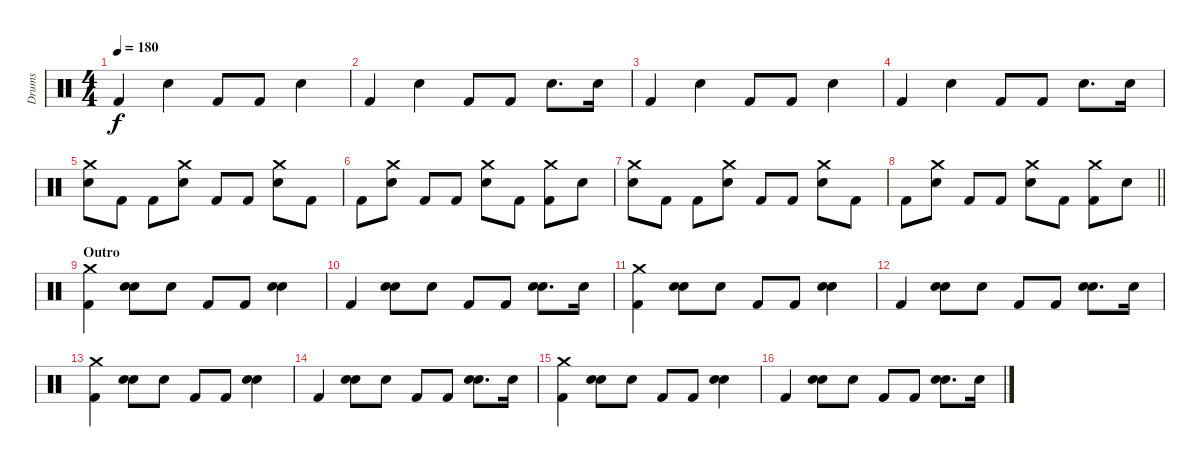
\track ("Drums" "Drums") {instrument percussion}
\staff {score}
\articulation defaults
\ts (4 4)
\tempo 180
\clef neutral
\ks c "Kick (hit) 2".4{dy f} "Snare (hit) 2".4 "Kick (hit) 2".8 "Kick (hit) 2".8 "Snare (hit) 2".4
|
"Kick (hit) 2".4 "Snare (hit) 2".4 "Kick (hit) 2".8 "Kick (hit) 2".8 "Snare (hit) 2".8{d} "Snare (hit) 2".16 |
"Kick (hit) 2".4 "Snare (hit) 2".4 "Kick (hit) 2".8 "Kick (hit) 2".8 "Snare (hit) 2".4 |
"Kick (hit) 2".4 "Snare (hit) 2".4 "Kick (hit) 2".8 "Kick (hit) 2".8 "Snare (hit) 2".8{d} "Snare (hit) 2".16 |
("Snare (hit) 2" "Crash medium (hit)").8 "Kick (hit) 2".8 "Kick (hit) 2".8 ("Snare (hit) 2" "Crash medium (hit)").8 "Kick (hit) 2".8 "Kick (hit) 2".8 ("Snare (hit) 2" "Crash medium (hit)").8 "Kick (hit) 2".8 |
"Kick (hit) 2".8 ("Snare (hit) 2" "Crash medium (hit)").8 "Kick (hit) 2".8 "Kick (hit) 2".8 ("Snare (hit) 2" "Crash medium (hit)").8 "Kick (hit) 2".8 ("Kick (hit) 2" "Crash medium (hit)").8 "Snare (hit) 2".8 |
("Snare (hit) 2" "Crash medium (hit)").8 "Kick (hit) 2".8 "Kick (hit) 2".8 ("Snare (hit) 2" "Crash medium (hit)").8 "Kick (hit) 2".8 "Kick (hit) 2".8 ("Snare (hit) 2" "Crash medium (hit)").8 "Kick (hit) 2".8 |
\barLineRight lightlight "Kick (hit) 2".8
("Snare (hit) 2" "Crash medium (hit)").8 "Kick (hit) 2".8 "Kick (hit) 2".8 ("Snare (hit) 2" "Crash medium (hit)").8 "Kick (hit) 2".8 ("Kick (hit) 2" "Crash medium (hit)").8 "Snare (hit) 2".8 |
\section ("" "Outro")
("Kick (hit) 2" "Crash medium (hit)").4 ("Snare (hit) 2" "Hand Clap (hit)").8 "Hand Clap (hit)".8 "Kick (hit) 2".8 "Kick (hit) 2".8 ("Snare (hit) 2" "Hand Clap (hit)").4 |
"Kick (hit) 2".4 ("Snare (hit) 2" "Hand Clap (hit)").8 "Hand Clap (hit)".8 "Kick (hit) 2".8 "Kick (hit) 2".8 ("Snare (hit) 2" "Hand Clap (hit)").8{d} "Snare (hit) 2".16 |
("Kick (hit) 2" "Crash medium (hit)").4 ("Snare (hit) 2" "Hand Clap (hit)").8 "Hand Clap (hit)".8 "Kick (hit) 2".8 "Kick (hit) 2".8 ("Snare (hit) 2" "Hand Clap (hit)").4 |
"Kick (hit) 2".4 ("Snare (hit) 2" "Hand Clap (hit)").8 "Hand Clap (hit)".8 "Kick (hit) 2".8 "Kick (hit) 2".8 ("Snare (hit) 2" "Hand Clap (hit)").8{d} "Snare (hit) 2".16 |
("Kick (hit) 2" "Crash medium (hit)").4 ("Snare (hit) 2" "Hand Clap (hit)").8 "Hand Clap (hit)".8 "Kick (hit) 2".8 "Kick (hit) 2".8 ("Snare (hit) 2" "Hand Clap (hit)").4 |
"Kick (hit) 2".4 ("Snare (hit) 2" "Hand Clap (hit)").8 "Hand Clap (hit)".8 "Kick (hit) 2".8 "Kick (hit) 2".8 ("Snare (hit) 2" "Hand Clap (hit)").8{d} "Snare (hit) 2".16 |
("Kick (hit) 2" "Crash medium (hit)").4 ("Snare (hit) 2" "Hand Clap (hit)").8 "Hand Clap (hit)".8 "Kick (hit) 2".8 "Kick (hit) 2".8 ("Snare (hit) 2" "Hand Clap (hit)").4 |
"Kick (hit) 2".4 ("Snare (hit) 2" "Hand Clap (hit)").8 "Hand Clap (hit)".8 "Kick (hit) 2".8 "Kick (hit) 2".8 ("Snare (hit) 2" "Hand Clap (hit)").8{d} "Snare (hit) 2".16
